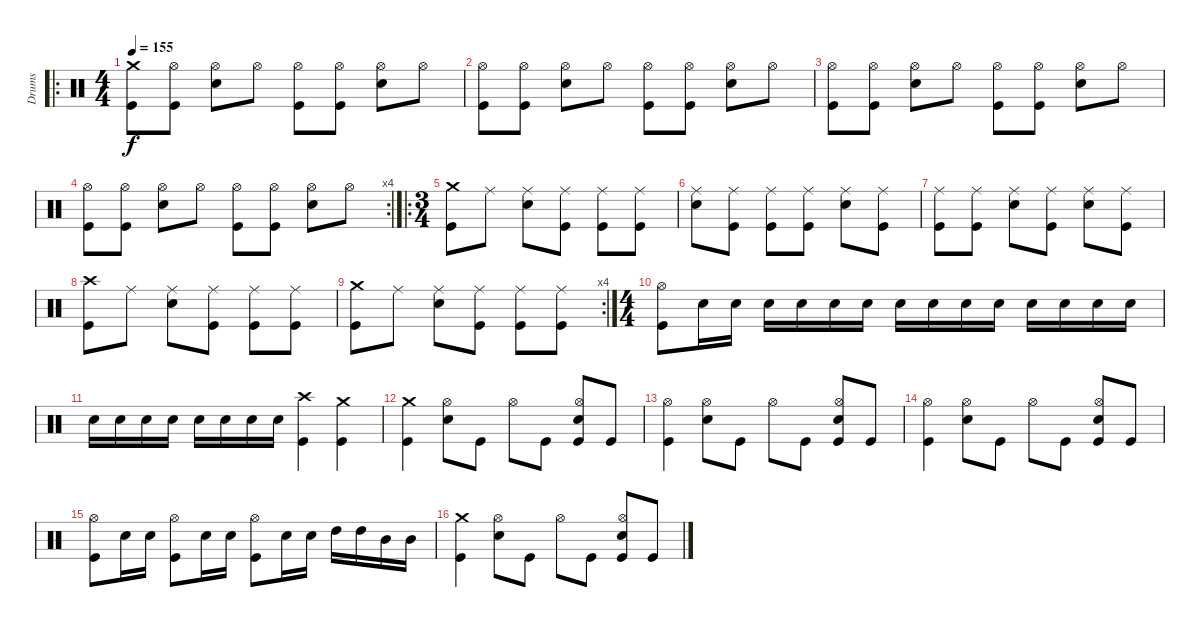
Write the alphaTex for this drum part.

\track ("Drums" "Drums") {instrument percussion}
\staff {score}
\articulation defaults
\ro
\ts (4 4)
\tempo 155
\clef neutral
\ks c
("Crash medium (hit)" "Kick (hit)").8{dy f} ("Hi-Hat (open)" "Kick (hit)").8 ("Hi-Hat (open)" "Snare (hit) 2").8 "Hi-Hat (open)".8 ("Hi-Hat (open)" "Kick (hit)").8 ("Hi-Hat (open)" "Kick (hit)").8 ("Hi-Hat (open)" "Snare (hit) 2").8 "Hi-Hat (open)".8 |
("Hi-Hat (open)" "Kick (hit)").8 ("Hi-Hat (open)" "Kick (hit)").8 ("Hi-Hat (open)" "Snare (hit) 2").8 "Hi-Hat (open)".8 ("Hi-Hat (open)" "Kick (hit)").8 ("Hi-Hat (open)" "Kick (hit)").8 ("Hi-Hat (open)" "Snare (hit) 2").8 "Hi-Hat (open)".8 |
("Hi-Hat (open)" "Kick (hit)").8 ("Hi-Hat (open)" "Kick (hit)").8 ("Hi-Hat (open)" "Snare (hit) 2").8 "Hi-Hat (open)".8 ("Hi-Hat (open)" "Kick (hit)").8 ("Hi-Hat (open)" "Kick (hit)").8 ("Hi-Hat (open)" "Snare (hit) 2").8 "Hi-Hat (open)".8 |
\rc 4
("Hi-Hat (open)" "Kick (hit)").8 ("Hi-Hat (open)" "Kick (hit)").8 ("Hi-Hat (open)" "Snare (hit) 2").8 "Hi-Hat (open)".8 ("Hi-Hat (open)" "Kick (hit)").8 ("Hi-Hat (open)" "Kick (hit)").8 ("Hi-Hat (open)" "Snare (hit) 2").8 "Hi-Hat (open)".8 |
\ro
\ts (3 4)
("Crash medium (hit)" "Kick (hit)").8 "Ride (middle)".8 ("Ride (middle)" "Snare (hit) 2").8 ("Ride (middle)" "Kick (hit)").8 ("Ride (middle)" "Kick (hit)").8 ("Ride (middle)" "Kick (hit)").8 |
("Ride (middle)" "Snare (hit) 2").8 ("Ride (middle)" "Kick (hit)").8 ("Ride (middle)" "Kick (hit)").8 ("Ride (middle)" "Kick (hit)").8 ("Ride (middle)" "Snare (hit) 2").8 ("Ride (middle)" "Kick (hit)").8 |
("Ride (middle)" "Kick (hit)").8 ("Ride (middle)" "Kick (hit)").8 ("Ride (middle)" "Snare (hit) 2").8 ("Ride (middle)" "Kick (hit)").8 ("Ride (middle)" "Snare (hit) 2").8 ("Ride (middle)" "Kick (hit)").8 |
("Crash high (hit)" "Kick (hit)").8 "Ride (middle)".8 ("Ride (middle)" "Snare (hit) 2").8 ("Ride (middle)" "Kick (hit)").8 ("Ride (middle)" "Kick (hit)").8 ("Ride (middle)" "Kick (hit)").8 |
\rc 4
("Crash medium (hit)" "Kick (hit)").8 "Ride (middle)".8 ("Ride (middle)" "Snare (hit) 2").8 ("Ride (middle)" "Kick (hit)").8 ("Ride (middle)" "Kick (hit)").8 ("Ride (middle)" "Kick (hit)").8 |
\ts (4 4)
("Hi-Hat (open)" "Kick (hit)").8 "Snare (hit) 2".16 "Snare (hit) 2".16 "Snare (hit) 2".16 "Snare (hit) 2".16 "Snare (hit) 2".16 "Snare (hit) 2".16 "Snare (hit) 2".16 "Snare (hit) 2".16 "Snare (hit) 2".16 "Snare (hit) 2".16 "Snare (hit) 2".16 "Snare (hit) 2".16 "Snare (hit) 2".16 "Snare (hit) 2".16 |
"Snare (hit) 2".16 "Snare (hit) 2".16 "Snare (hit) 2".16 "Snare (hit) 2".16 "Snare (hit) 2".16 "Snare (hit) 2".16 "Snare (hit) 2".16 "Snare (hit) 2".16 ("Crash high (hit)" "Kick (hit)").4 ("Crash medium (hit)" "Kick (hit)").4 |
("Crash medium (hit)" "Kick (hit)").4 ("Hi-Hat (open)" "Snare (hit) 2").8 "Kick (hit)".8 "Hi-Hat (open)".8 "Kick (hit)".8 ("Hi-Hat (open)" "Snare (hit) 2" "Kick (hit)").8 "Kick (hit)".8 |
("Hi-Hat (open)" "Kick (hit)").4 ("Hi-Hat (open)" "Snare (hit) 2").8 "Kick (hit)".8 "Hi-Hat (open)".8 "Kick (hit)".8 ("Hi-Hat (open)" "Snare (hit) 2" "Kick (hit)").8 "Kick (hit)".8 |
("Hi-Hat (open)" "Kick (hit)").4 ("Hi-Hat (open)" "Snare (hit) 2").8 "Kick (hit)".8 "Hi-Hat (open)".8 "Kick (hit)".8 ("Hi-Hat (open)" "Snare (hit) 2" "Kick (hit)").8 "Kick (hit)".8 |
("Hi-Hat (open)" "Kick (hit)").8 "Snare (hit) 2".16 "Snare (hit) 2".16 ("Hi-Hat (open)" "Kick (hit)").8 "Snare (hit) 2".16 "Snare (hit) 2".16 ("Hi-Hat (open)" "Kick (hit)").8 "Snare (hit) 2".16 "Snare (hit) 2".16 "High Tom (hit)".16 "High Tom (hit)".16 "Mid Tom (hit)".16 "Mid Tom (hit)".16 |
("Crash medium (hit)" "Kick (hit)").4 ("Hi-Hat (open)" "Snare (hit) 2").8 "Kick (hit)".8 "Hi-Hat (open)".8 "Kick (hit)".8 ("Hi-Hat (open)" "Snare (hit) 2" "Kick (hit)").8 "Kick (hit)".8
